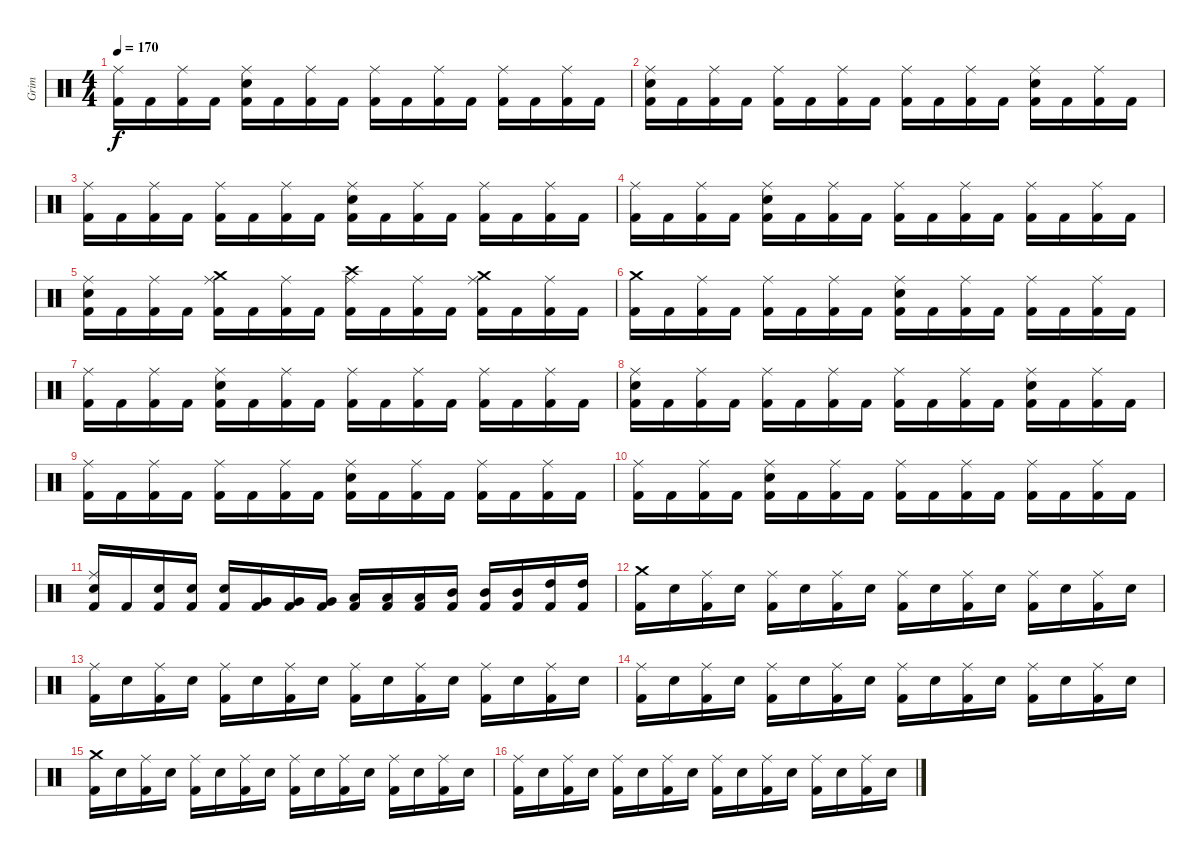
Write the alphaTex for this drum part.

\track ("Grim" "Grim") {instrument percussion}
\staff {score}
\articulation defaults
\ts (4 4)
\tempo 170
\clef neutral
\ks c
("Kick (hit) 2" "Ride (middle)").16{dy f} "Kick (hit) 2".16 ("Kick (hit) 2" "Ride (middle)").16 "Kick (hit) 2".16 ("Kick (hit) 2" "Electric Snare (hit)" "Ride (middle)").16 "Kick (hit) 2".16 ("Kick (hit) 2" "Ride (middle)").16 "Kick (hit) 2".16 ("Kick (hit) 2" "Ride (middle)").16 "Kick (hit) 2".16 ("Kick (hit) 2" "Ride (middle)").16 "Kick (hit) 2".16 ("Kick (hit) 2" "Ride (middle)").16 "Kick (hit) 2".16 ("Kick (hit) 2" "Ride (middle)").16 "Kick (hit) 2".16 |
("Kick (hit) 2" "Electric Snare (hit)" "Ride (middle)").16 "Kick (hit) 2".16 ("Kick (hit) 2" "Ride (middle)").16 "Kick (hit) 2".16 ("Kick (hit) 2" "Ride (middle)").16 "Kick (hit) 2".16 ("Kick (hit) 2" "Ride (middle)").16 "Kick (hit) 2".16 ("Kick (hit) 2" "Ride (middle)").16 "Kick (hit) 2".16 ("Kick (hit) 2" "Ride (middle)").16 "Kick (hit) 2".16 ("Kick (hit) 2" "Electric Snare (hit)" "Ride (middle)").16 "Kick (hit) 2".16 ("Kick (hit) 2" "Ride (middle)").16 "Kick (hit) 2".16 |
("Kick (hit) 2" "Ride (middle)").16 "Kick (hit) 2".16 ("Kick (hit) 2" "Ride (middle)").16 "Kick (hit) 2".16 ("Kick (hit) 2" "Ride (middle)").16 "Kick (hit) 2".16 ("Kick (hit) 2" "Ride (middle)").16 "Kick (hit) 2".16 ("Kick (hit) 2" "Electric Snare (hit)" "Ride (middle)").16 "Kick (hit) 2".16 ("Kick (hit) 2" "Ride (middle)").16 "Kick (hit) 2".16 ("Kick (hit) 2" "Ride (middle)").16 "Kick (hit) 2".16 ("Kick (hit) 2" "Ride (middle)").16 "Kick (hit) 2".16 |
("Kick (hit) 2" "Ride (middle)").16 "Kick (hit) 2".16 ("Kick (hit) 2" "Ride (middle)").16 "Kick (hit) 2".16 ("Kick (hit) 2" "Electric Snare (hit)" "Ride (middle)").16 "Kick (hit) 2".16 ("Kick (hit) 2" "Ride (middle)").16 "Kick (hit) 2".16 ("Kick (hit) 2" "Ride (middle)").16 "Kick (hit) 2".16 ("Kick (hit) 2" "Ride (middle)").16 "Kick (hit) 2".16 ("Kick (hit) 2" "Ride (middle)").16 "Kick (hit) 2".16 ("Kick (hit) 2" "Ride (middle)").16 "Kick (hit) 2".16 |
("Kick (hit) 2" "Electric Snare (hit)" "Ride (middle)").16 "Kick (hit) 2".16 ("Kick (hit) 2" "Ride (middle)").16 "Kick (hit) 2".16 ("Kick (hit) 2" "Ride (middle)" "Crash medium (hit)").16 "Kick (hit) 2".16 ("Kick (hit) 2" "Ride (middle)").16 "Kick (hit) 2".16 ("Kick (hit) 2" "Ride (middle)" "Crash high (hit)").16 "Kick (hit) 2".16 ("Kick (hit) 2" "Ride (middle)").16 "Kick (hit) 2".16 ("Kick (hit) 2" "Ride (middle)" "Crash medium (hit)").16 "Kick (hit) 2".16 ("Kick (hit) 2" "Ride (middle)").16 "Kick (hit) 2".16 |
("Kick (hit) 2" "Crash medium (hit)").16 "Kick (hit) 2".16 ("Kick (hit) 2" "Ride (middle)").16 "Kick (hit) 2".16 ("Kick (hit) 2" "Ride (middle)").16 "Kick (hit) 2".16 ("Kick (hit) 2" "Ride (middle)").16 "Kick (hit) 2".16 ("Kick (hit) 2" "Electric Snare (hit)" "Ride (middle)").16 "Kick (hit) 2".16 ("Kick (hit) 2" "Ride (middle)").16 "Kick (hit) 2".16 ("Kick (hit) 2" "Ride (middle)").16 "Kick (hit) 2".16 ("Kick (hit) 2" "Ride (middle)").16 "Kick (hit) 2".16 |
("Kick (hit) 2" "Ride (middle)").16 "Kick (hit) 2".16 ("Kick (hit) 2" "Ride (middle)").16 "Kick (hit) 2".16 ("Kick (hit) 2" "Electric Snare (hit)" "Ride (middle)").16 "Kick (hit) 2".16 ("Kick (hit) 2" "Ride (middle)").16 "Kick (hit) 2".16 ("Kick (hit) 2" "Ride (middle)").16 "Kick (hit) 2".16 ("Kick (hit) 2" "Ride (middle)").16 "Kick (hit) 2".16 ("Kick (hit) 2" "Ride (middle)").16 "Kick (hit) 2".16 ("Kick (hit) 2" "Ride (middle)").16 "Kick (hit) 2".16 |
("Kick (hit) 2" "Electric Snare (hit)" "Ride (middle)").16 "Kick (hit) 2".16 ("Kick (hit) 2" "Ride (middle)").16 "Kick (hit) 2".16 ("Kick (hit) 2" "Ride (middle)").16 "Kick (hit) 2".16 ("Kick (hit) 2" "Ride (middle)").16 "Kick (hit) 2".16 ("Kick (hit) 2" "Ride (middle)").16 "Kick (hit) 2".16 ("Kick (hit) 2" "Ride (middle)").16 "Kick (hit) 2".16 ("Kick (hit) 2" "Electric Snare (hit)" "Ride (middle)").16 "Kick (hit) 2".16 ("Kick (hit) 2" "Ride (middle)").16 "Kick (hit) 2".16 |
("Kick (hit) 2" "Ride (middle)").16 "Kick (hit) 2".16 ("Kick (hit) 2" "Ride (middle)").16 "Kick (hit) 2".16 ("Kick (hit) 2" "Ride (middle)").16 "Kick (hit) 2".16 ("Kick (hit) 2" "Ride (middle)").16 "Kick (hit) 2".16 ("Kick (hit) 2" "Electric Snare (hit)" "Ride (middle)").16 "Kick (hit) 2".16 ("Kick (hit) 2" "Ride (middle)").16 "Kick (hit) 2".16 ("Kick (hit) 2" "Ride (middle)").16 "Kick (hit) 2".16 ("Kick (hit) 2" "Ride (middle)").16 "Kick (hit) 2".16 |
("Kick (hit) 2" "Ride (middle)").16 "Kick (hit) 2".16 ("Kick (hit) 2" "Ride (middle)").16 "Kick (hit) 2".16 ("Kick (hit) 2" "Electric Snare (hit)" "Ride (middle)").16 "Kick (hit) 2".16 ("Kick (hit) 2" "Ride (middle)").16 "Kick (hit) 2".16 ("Kick (hit) 2" "Ride (middle)").16 "Kick (hit) 2".16 ("Kick (hit) 2" "Ride (middle)").16 "Kick (hit) 2".16 ("Kick (hit) 2" "Ride (middle)").16 "Kick (hit) 2".16 ("Kick (hit) 2" "Ride (middle)").16 "Kick (hit) 2".16 |
("Kick (hit) 2" "Electric Snare (hit)" "Ride (middle)").16 "Kick (hit) 2".16 ("Kick (hit) 2" "Electric Snare (hit)").16 ("Kick (hit) 2" "Electric Snare (hit)").16 ("Kick (hit) 2" "Electric Snare (hit)").16 ("Kick (hit) 2" "Very Low Tom (hit)").16 ("Kick (hit) 2" "Very Low Tom (hit)").16 ("Kick (hit) 2" "Very Low Tom (hit)").16 ("Kick (hit) 2" "Low Tom (hit)").16 ("Kick (hit) 2" "Low Tom (hit)").16 ("Kick (hit) 2" "Low Tom (hit)").16 ("Kick (hit) 2" "Mid Tom (hit)").16 ("Kick (hit) 2" "Mid Tom (hit)").16 ("Kick (hit) 2" "Mid Tom (hit)").16 ("Kick (hit) 2" "High Tom (hit)").16 ("Kick (hit) 2" "High Tom (hit)").16 |
("Kick (hit) 2" "Crash medium (hit)").16 "Electric Snare (hit)".16 ("Kick (hit) 2" "Ride (middle)").16 "Electric Snare (hit)".16 ("Kick (hit) 2" "Ride (middle)").16 "Electric Snare (hit)".16 ("Kick (hit) 2" "Ride (middle)").16 "Electric Snare (hit)".16 ("Kick (hit) 2" "Ride (middle)").16 "Electric Snare (hit)".16 ("Kick (hit) 2" "Ride (middle)").16 "Electric Snare (hit)".16 ("Kick (hit) 2" "Ride (middle)").16 "Electric Snare (hit)".16 ("Kick (hit) 2" "Ride (middle)").16 "Electric Snare (hit)".16 |
("Kick (hit) 2" "Ride (middle)").16 "Electric Snare (hit)".16 ("Kick (hit) 2" "Ride (middle)").16 "Electric Snare (hit)".16 ("Kick (hit) 2" "Ride (middle)").16 "Electric Snare (hit)".16 ("Kick (hit) 2" "Ride (middle)").16 "Electric Snare (hit)".16 ("Kick (hit) 2" "Ride (middle)").16 "Electric Snare (hit)".16 ("Kick (hit) 2" "Ride (middle)").16 "Electric Snare (hit)".16 ("Kick (hit) 2" "Ride (middle)").16 "Electric Snare (hit)".16 ("Kick (hit) 2" "Ride (middle)").16 "Electric Snare (hit)".16 |
("Kick (hit) 2" "Ride (middle)").16 "Electric Snare (hit)".16 ("Kick (hit) 2" "Ride (middle)").16 "Electric Snare (hit)".16 ("Kick (hit) 2" "Ride (middle)").16 "Electric Snare (hit)".16 ("Kick (hit) 2" "Ride (middle)").16 "Electric Snare (hit)".16 ("Kick (hit) 2" "Ride (middle)").16 "Electric Snare (hit)".16 ("Kick (hit) 2" "Ride (middle)").16 "Electric Snare (hit)".16 ("Kick (hit) 2" "Ride (middle)").16 "Electric Snare (hit)".16 ("Kick (hit) 2" "Ride (middle)").16 "Electric Snare (hit)".16 |
("Kick (hit) 2" "Crash medium (hit)").16 "Electric Snare (hit)".16 ("Kick (hit) 2" "Ride (middle)").16 "Electric Snare (hit)".16 ("Kick (hit) 2" "Ride (middle)").16 "Electric Snare (hit)".16 ("Kick (hit) 2" "Ride (middle)").16 "Electric Snare (hit)".16 ("Kick (hit) 2" "Ride (middle)").16 "Electric Snare (hit)".16 ("Kick (hit) 2" "Ride (middle)").16 "Electric Snare (hit)".16 ("Kick (hit) 2" "Ride (middle)").16 "Electric Snare (hit)".16 ("Kick (hit) 2" "Ride (middle)").16 "Electric Snare (hit)".16 |
("Kick (hit) 2" "Ride (middle)").16 "Electric Snare (hit)".16 ("Kick (hit) 2" "Ride (middle)").16 "Electric Snare (hit)".16 ("Kick (hit) 2" "Ride (middle)").16 "Electric Snare (hit)".16 ("Kick (hit) 2" "Ride (middle)").16 "Electric Snare (hit)".16 ("Kick (hit) 2" "Ride (middle)").16 "Electric Snare (hit)".16 ("Kick (hit) 2" "Ride (middle)").16 "Electric Snare (hit)".16 ("Kick (hit) 2" "Ride (middle)").16 "Electric Snare (hit)".16 ("Kick (hit) 2" "Ride (middle)").16 "Electric Snare (hit)".16
